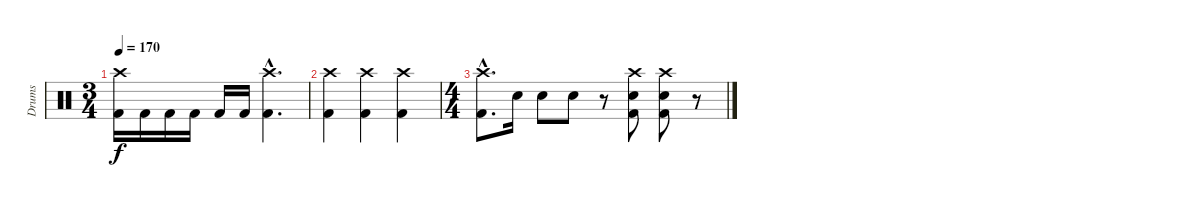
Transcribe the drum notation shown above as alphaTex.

\track ("Drums" "Drums") {instrument percussion}
\staff {score}
\articulation defaults
\ts (3 4)
\tempo 170
\clef neutral
\ks c
("Crash high (hit)" "Kick (hit) 2").16{dy f} "Kick (hit) 2".16 "Kick (hit) 2".16 "Kick (hit) 2".16 "Kick (hit) 2".16 "Kick (hit) 2".16 ("Crash high (hit)"{hac} "Kick (hit) 2"{hac}).4{d} |
("Crash high (hit)" "Kick (hit) 2").4 ("Crash high (hit)" "Kick (hit) 2").4 ("Crash high (hit)" "Kick (hit) 2").4 |
\ts (4 4)
("Crash high (hit)"{hac} "Kick (hit) 2"{hac}).8{d} "Electric Snare (hit)".16 "Electric Snare (hit)".8 "Electric Snare (hit)".8 r.8 ("Crash high (hit)" "Electric Snare (hit)" "Kick (hit) 2").8 ("Crash high (hit)" "Electric Snare (hit)" "Kick (hit) 2").8 r.8
